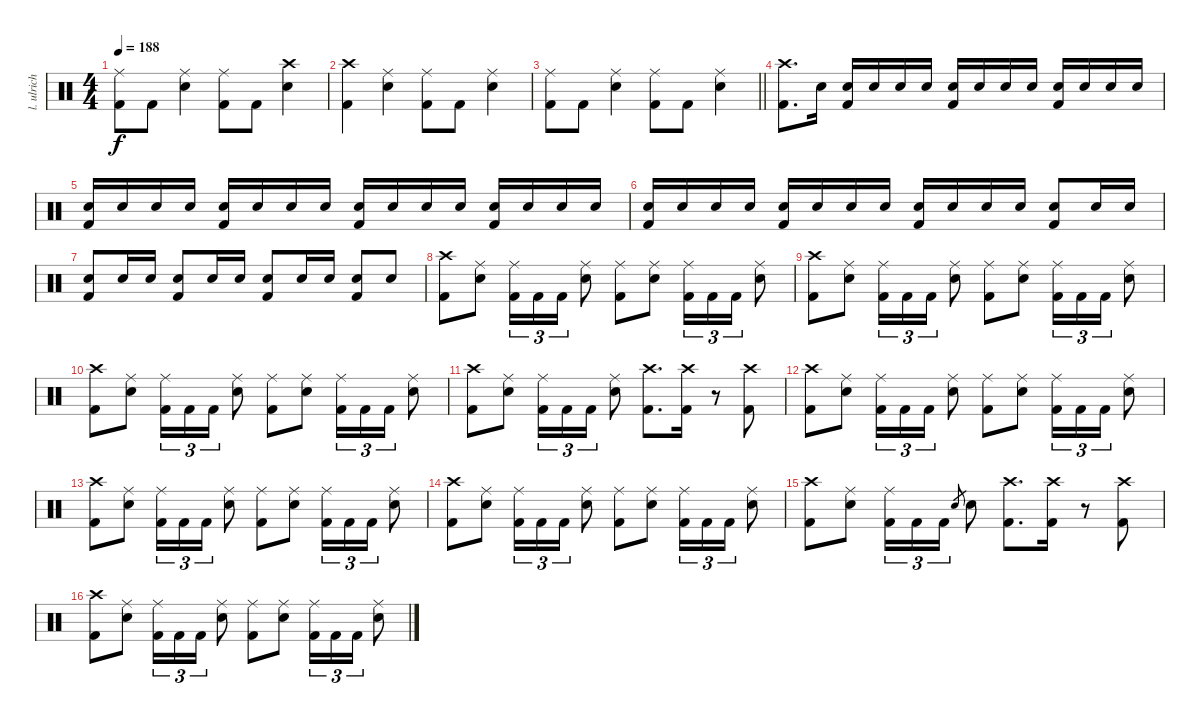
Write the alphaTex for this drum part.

\track ("l. ulrich - drums" "l. ulrich ") {instrument percussion}
\staff {score}
\articulation defaults
\ts (4 4)
\tempo 188
\clef neutral
\ks c
("Ride (middle)" "Kick (hit) 2").8{dy f} "Kick (hit) 2".8 ("Ride (middle)" "Snare (hit) 2").4 ("Ride (middle)" "Kick (hit) 2").8 "Kick (hit) 2".8 ("Crash high (hit)" "Snare (hit) 2").4 |
("Crash high (hit)" "Kick (hit) 2").4 ("Ride (middle)" "Snare (hit) 2").4 ("Ride (middle)" "Kick (hit) 2").8 "Kick (hit) 2".8 ("Ride (middle)" "Snare (hit) 2").4 |
\barLineRight lightlight
("Ride (middle)" "Kick (hit) 2").8 "Kick (hit) 2".8 ("Ride (middle)" "Snare (hit) 2").4 ("Ride (middle)" "Kick (hit) 2").8 "Kick (hit) 2".8 ("Ride (middle)" "Snare (hit) 2").4 |
("Crash high (hit)" "Kick (hit) 2").8{d} "Snare (hit) 2".16 ("Snare (hit) 2" "Kick (hit) 2").16 "Snare (hit) 2".16 "Snare (hit) 2".16 "Snare (hit) 2".16 ("Snare (hit) 2" "Kick (hit) 2").16 "Snare (hit) 2".16 "Snare (hit) 2".16 "Snare (hit) 2".16 ("Snare (hit) 2" "Kick (hit) 2").16 "Snare (hit) 2".16 "Snare (hit) 2".16 "Snare (hit) 2".16 |
("Snare (hit) 2" "Kick (hit) 2").16 "Snare (hit) 2".16 "Snare (hit) 2".16 "Snare (hit) 2".16 ("Snare (hit) 2" "Kick (hit) 2").16 "Snare (hit) 2".16 "Snare (hit) 2".16 "Snare (hit) 2".16 ("Snare (hit) 2" "Kick (hit) 2").16 "Snare (hit) 2".16 "Snare (hit) 2".16 "Snare (hit) 2".16 ("Snare (hit) 2" "Kick (hit) 2").16 "Snare (hit) 2".16 "Snare (hit) 2".16 "Snare (hit) 2".16 |
("Snare (hit) 2" "Kick (hit) 2").16 "Snare (hit) 2".16 "Snare (hit) 2".16 "Snare (hit) 2".16 ("Snare (hit) 2" "Kick (hit) 2").16 "Snare (hit) 2".16 "Snare (hit) 2".16 "Snare (hit) 2".16 ("Snare (hit) 2" "Kick (hit) 2").16 "Snare (hit) 2".16 "Snare (hit) 2".16 "Snare (hit) 2".16 ("Snare (hit) 2" "Kick (hit) 2").8 "Snare (hit) 2".16 "Snare (hit) 2".16 |
("Snare (hit) 2" "Kick (hit) 2").8 "Snare (hit) 2".16 "Snare (hit) 2".16 ("Snare (hit) 2" "Kick (hit) 2").8 "Snare (hit) 2".16 "Snare (hit) 2".16 ("Snare (hit) 2" "Kick (hit) 2").8 "Snare (hit) 2".16 "Snare (hit) 2".16 ("Snare (hit) 2" "Kick (hit) 2").8 "Snare (hit) 2".8 |
("Crash high (hit)" "Kick (hit) 2").8 ("Ride (middle)" "Snare (hit) 2").8 ("Ride (middle)" "Kick (hit) 2").16{tu (3 2)} "Kick (hit) 2".16{tu (3 2)} "Kick (hit) 2".16{tu (3 2)} ("Ride (middle)" "Snare (hit) 2").8 ("Ride (middle)" "Kick (hit) 2").8 ("Ride (middle)" "Snare (hit) 2").8 ("Ride (middle)" "Kick (hit) 2").16{tu (3 2)} "Kick (hit) 2".16{tu (3 2)} "Kick (hit) 2".16{tu (3 2)} ("Ride (middle)" "Snare (hit) 2").8 |
("Crash high (hit)" "Kick (hit) 2").8 ("Ride (middle)" "Snare (hit) 2").8 ("Ride (middle)" "Kick (hit) 2").16{tu (3 2)} "Kick (hit) 2".16{tu (3 2)} "Kick (hit) 2".16{tu (3 2)} ("Ride (middle)" "Snare (hit) 2").8 ("Ride (middle)" "Kick (hit) 2").8 ("Ride (middle)" "Snare (hit) 2").8 ("Ride (middle)" "Kick (hit) 2").16{tu (3 2)} "Kick (hit) 2".16{tu (3 2)} "Kick (hit) 2".16{tu (3 2)} ("Ride (middle)" "Snare (hit) 2").8 |
("Crash high (hit)" "Kick (hit) 2").8 ("Ride (middle)" "Snare (hit) 2").8 ("Ride (middle)" "Kick (hit) 2").16{tu (3 2)} "Kick (hit) 2".16{tu (3 2)} "Kick (hit) 2".16{tu (3 2)} ("Ride (middle)" "Snare (hit) 2").8 ("Ride (middle)" "Kick (hit) 2").8 ("Ride (middle)" "Snare (hit) 2").8 ("Ride (middle)" "Kick (hit) 2").16{tu (3 2)} "Kick (hit) 2".16{tu (3 2)} "Kick (hit) 2".16{tu (3 2)} ("Ride (middle)" "Snare (hit) 2").8 |
("Crash high (hit)" "Kick (hit) 2").8 ("Ride (middle)" "Snare (hit) 2").8 ("Ride (middle)" "Kick (hit) 2").16{tu (3 2)} "Kick (hit) 2".16{tu (3 2)} "Kick (hit) 2".16{tu (3 2)} ("Ride (middle)" "Snare (hit) 2").8 ("Crash high (hit)" "Kick (hit) 2").8{d} ("Crash high (hit)" "Kick (hit) 2").16 r.8 ("Crash high (hit)" "Kick (hit) 2").8 |
("Crash high (hit)" "Kick (hit) 2").8 ("Ride (middle)" "Snare (hit) 2").8 ("Ride (middle)" "Kick (hit) 2").16{tu (3 2)} "Kick (hit) 2".16{tu (3 2)} "Kick (hit) 2".16{tu (3 2)} ("Ride (middle)" "Snare (hit) 2").8 ("Ride (middle)" "Kick (hit) 2").8 ("Ride (middle)" "Snare (hit) 2").8 ("Ride (middle)" "Kick (hit) 2").16{tu (3 2)} "Kick (hit) 2".16{tu (3 2)} "Kick (hit) 2".16{tu (3 2)} ("Ride (middle)" "Snare (hit) 2").8 |
("Crash high (hit)" "Kick (hit) 2").8 ("Ride (middle)" "Snare (hit) 2").8 ("Ride (middle)" "Kick (hit) 2").16{tu (3 2)} "Kick (hit) 2".16{tu (3 2)} "Kick (hit) 2".16{tu (3 2)} ("Ride (middle)" "Snare (hit) 2").8 ("Ride (middle)" "Kick (hit) 2").8 ("Ride (middle)" "Snare (hit) 2").8 ("Ride (middle)" "Kick (hit) 2").16{tu (3 2)} "Kick (hit) 2".16{tu (3 2)} "Kick (hit) 2".16{tu (3 2)} ("Ride (middle)" "Snare (hit) 2").8 |
("Crash high (hit)" "Kick (hit) 2").8 ("Ride (middle)" "Snare (hit) 2").8 ("Ride (middle)" "Kick (hit) 2").16{tu (3 2)} "Kick (hit) 2".16{tu (3 2)} "Kick (hit) 2".16{tu (3 2)} ("Ride (middle)" "Snare (hit) 2").8 ("Ride (middle)" "Kick (hit) 2").8 ("Ride (middle)" "Snare (hit) 2").8 ("Ride (middle)" "Kick (hit) 2").16{tu (3 2)} "Kick (hit) 2".16{tu (3 2)} "Kick (hit) 2".16{tu (3 2)} ("Ride (middle)" "Snare (hit) 2").8 |
("Crash high (hit)" "Kick (hit) 2").8 ("Ride (middle)" "Snare (hit) 2").8 ("Ride (middle)" "Kick (hit) 2").16{tu (3 2)} "Kick (hit) 2".16{tu (3 2)} "Kick (hit) 2".16{tu (3 2)} "Snare (hit) 2".8{gr} "Snare (hit) 2".8 ("Crash high (hit)" "Kick (hit) 2").8{d} ("Crash high (hit)" "Kick (hit) 2").16 r.8 ("Crash high (hit)" "Kick (hit) 2").8 |
("Crash high (hit)" "Kick (hit) 2").8 ("Ride (middle)" "Snare (hit) 2").8 ("Ride (middle)" "Kick (hit) 2").16{tu (3 2)} "Kick (hit) 2".16{tu (3 2)} "Kick (hit) 2".16{tu (3 2)} ("Ride (middle)" "Snare (hit) 2").8 ("Ride (middle)" "Kick (hit) 2").8 ("Ride (middle)" "Snare (hit) 2").8 ("Ride (middle)" "Kick (hit) 2").16{tu (3 2)} "Kick (hit) 2".16{tu (3 2)} "Kick (hit) 2".16{tu (3 2)} ("Ride (middle)" "Snare (hit) 2").8
